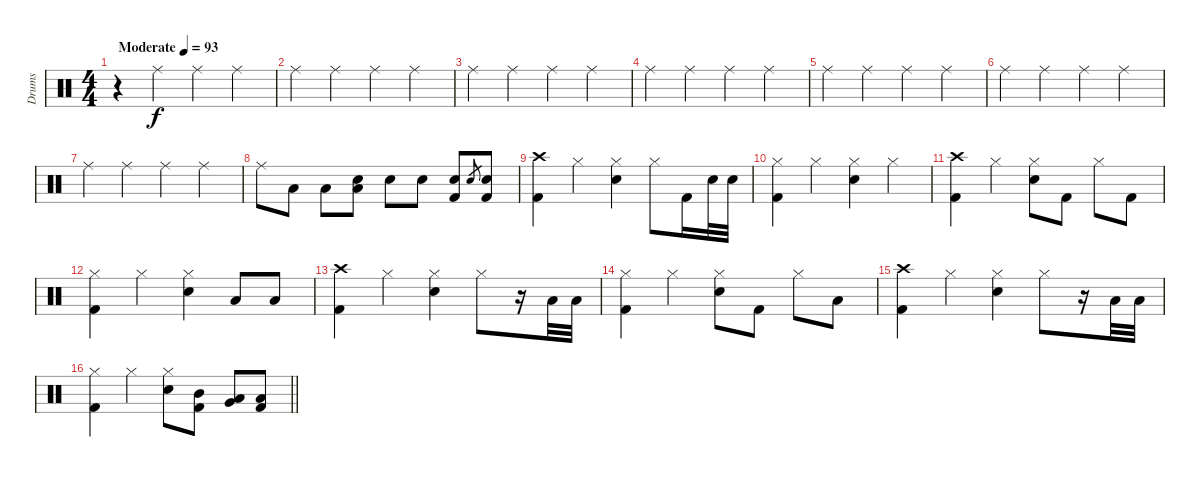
\track ("Drums" "Drums") {instrument percussion}
\staff {score}
\articulation defaults
\ts (4 4)
\tempo (93 "Moderate")
\clef neutral
\ks c
r.4{dy f} "Ride (middle)".4 "Ride (middle)".4 "Ride (middle)".4 |
"Ride (middle)".4 "Ride (middle)".4 "Ride (middle)".4 "Ride (middle)".4 |
"Ride (middle)".4 "Ride (middle)".4 "Ride (middle)".4 "Ride (middle)".4 |
"Ride (middle)".4 "Ride (middle)".4 "Ride (middle)".4 "Ride (middle)".4 |
"Ride (middle)".4 "Ride (middle)".4 "Ride (middle)".4 "Ride (middle)".4 |
"Ride (middle)".4 "Ride (middle)".4 "Ride (middle)".4 "Ride (middle)".4 |
"Ride (middle)".4 "Ride (middle)".4 "Ride (middle)".4 "Ride (middle)".4 |
"Ride (middle)".8 "Low Tom (hit)".8 "Low Tom (hit)".8 ("Low Tom (hit)" "Snare (hit) 2").8 "Snare (hit) 2".8 "Snare (hit) 2".8 ("Snare (hit) 2" "Kick (hit) 2").8 "Electric Snare (hit)".8{gr} ("Snare (hit) 2" "Kick (hit) 2").8 |
("Crash high (hit)" "Kick (hit) 2").4 "Hi-Hat (closed)".4 ("Hi-Hat (closed)" "Snare (hit) 2").4 "Hi-Hat (closed)".8 "Kick (hit) 2".16 "Snare (hit) 2".32 "Snare (hit) 2".32 |
("Hi-Hat (closed)" "Kick (hit) 2").4 "Hi-Hat (closed)".4 ("Hi-Hat (closed)" "Snare (hit) 2").4 "Hi-Hat (closed)".4 |
("Crash high (hit)" "Kick (hit) 2").4 "Hi-Hat (closed)".4 ("Hi-Hat (closed)" "Snare (hit) 2").8 "Kick (hit) 2".8 "Hi-Hat (closed)".8 "Kick (hit) 2".8 |
("Hi-Hat (closed)" "Kick (hit) 2").4 "Hi-Hat (closed)".4 ("Hi-Hat (closed)" "Snare (hit) 2").4 "Low Tom (hit)".8 "Low Tom (hit)".8 |
("Crash high (hit)" "Kick (hit) 2").4 "Hi-Hat (closed)".4 ("Hi-Hat (closed)" "Snare (hit) 2").4 "Hi-Hat (closed)".8 r.16 "Low Tom (hit)".32 "Low Tom (hit)".32 |
("Hi-Hat (closed)" "Kick (hit) 2").4 "Hi-Hat (closed)".4 ("Hi-Hat (closed)" "Snare (hit) 2").8 "Kick (hit) 2".8 "Hi-Hat (closed)".8 "Low Tom (hit)".8 |
("Crash high (hit)" "Kick (hit) 2").4 "Hi-Hat (closed)".4 ("Hi-Hat (closed)" "Snare (hit) 2").4 "Hi-Hat (closed)".8 r.16 "Low Tom (hit)".32 "Low Tom (hit)".32 |
\barLineRight lightlight
("Hi-Hat (closed)" "Kick (hit) 2").4 "Hi-Hat (closed)".4 ("Hi-Hat (closed)" "Snare (hit) 2").8 ("Mid Tom (hit)" "Kick (hit) 2").8 ("Low Tom (hit)" "Very Low Tom (hit)").8 ("Low Floor Tom (hit)" "Kick (hit) 2").8
